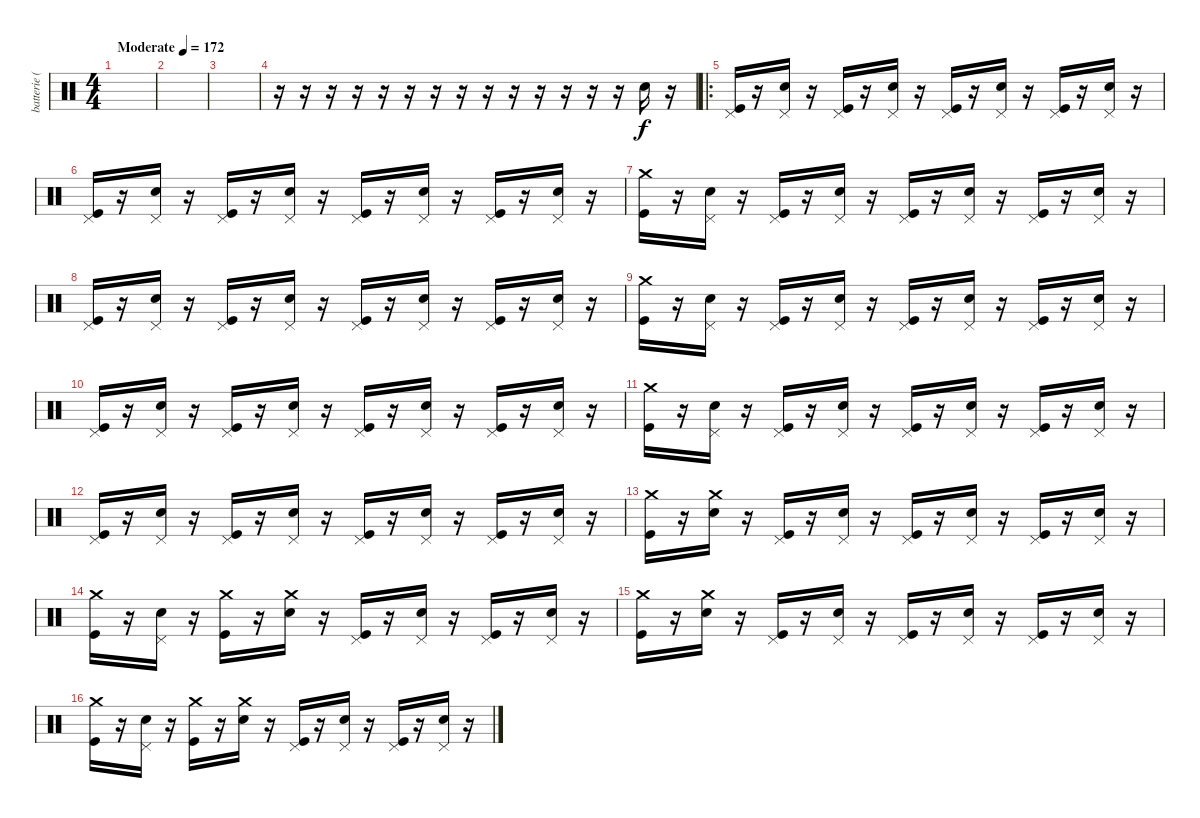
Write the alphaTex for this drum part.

\track ("batterie ( Louie Beatto ) " "batterie (") {instrument percussion}
\staff {score}
\articulation defaults
\ts (4 4)
\tempo (172 "Moderate")
\clef neutral
\ks c
|
|
|
r.16 r.16 r.16 r.16 r.16 r.16 r.16 r.16 r.16 r.16 r.16 r.16 r.16 r.16 "Snare (hit) 2".16 r.16 |
\ro
("Pedal Hi-Hat (hit)" "Kick (hit)").16 r.16 ("Pedal Hi-Hat (hit)" "Snare (hit) 2").16 r.16 ("Pedal Hi-Hat (hit)" "Kick (hit)").16 r.16 ("Pedal Hi-Hat (hit)" "Snare (hit) 2").16 r.16 ("Pedal Hi-Hat (hit)" "Kick (hit)").16 r.16 ("Pedal Hi-Hat (hit)" "Snare (hit) 2").16 r.16 ("Pedal Hi-Hat (hit)" "Kick (hit)").16 r.16 ("Pedal Hi-Hat (hit)" "Snare (hit) 2").16 r.16 |
("Pedal Hi-Hat (hit)" "Kick (hit)").16 r.16 ("Pedal Hi-Hat (hit)" "Snare (hit) 2").16 r.16 ("Pedal Hi-Hat (hit)" "Kick (hit)").16 r.16 ("Pedal Hi-Hat (hit)" "Snare (hit) 2").16 r.16 ("Pedal Hi-Hat (hit)" "Kick (hit)").16 r.16 ("Pedal Hi-Hat (hit)" "Snare (hit) 2").16 r.16 ("Pedal Hi-Hat (hit)" "Kick (hit)").16 r.16 ("Pedal Hi-Hat (hit)" "Snare (hit) 2").16 r.16 |
("Crash medium (hit)" "Kick (hit)").16 r.16 ("Pedal Hi-Hat (hit)" "Snare (hit) 2").16 r.16 ("Pedal Hi-Hat (hit)" "Kick (hit)").16 r.16 ("Pedal Hi-Hat (hit)" "Snare (hit) 2").16 r.16 ("Pedal Hi-Hat (hit)" "Kick (hit)").16 r.16 ("Pedal Hi-Hat (hit)" "Snare (hit) 2").16 r.16 ("Pedal Hi-Hat (hit)" "Kick (hit)").16 r.16 ("Pedal Hi-Hat (hit)" "Snare (hit) 2").16 r.16 |
("Pedal Hi-Hat (hit)" "Kick (hit)").16 r.16 ("Pedal Hi-Hat (hit)" "Snare (hit) 2").16 r.16 ("Pedal Hi-Hat (hit)" "Kick (hit)").16 r.16 ("Pedal Hi-Hat (hit)" "Snare (hit) 2").16 r.16 ("Pedal Hi-Hat (hit)" "Kick (hit)").16 r.16 ("Pedal Hi-Hat (hit)" "Snare (hit) 2").16 r.16 ("Pedal Hi-Hat (hit)" "Kick (hit)").16 r.16 ("Pedal Hi-Hat (hit)" "Snare (hit) 2").16 r.16 |
("Crash medium (hit)" "Kick (hit)").16 r.16 ("Pedal Hi-Hat (hit)" "Snare (hit) 2").16 r.16 ("Pedal Hi-Hat (hit)" "Kick (hit)").16 r.16 ("Pedal Hi-Hat (hit)" "Snare (hit) 2").16 r.16 ("Pedal Hi-Hat (hit)" "Kick (hit)").16 r.16 ("Pedal Hi-Hat (hit)" "Snare (hit) 2").16 r.16 ("Pedal Hi-Hat (hit)" "Kick (hit)").16 r.16 ("Pedal Hi-Hat (hit)" "Snare (hit) 2").16 r.16 |
("Pedal Hi-Hat (hit)" "Kick (hit)").16 r.16 ("Pedal Hi-Hat (hit)" "Snare (hit) 2").16 r.16 ("Pedal Hi-Hat (hit)" "Kick (hit)").16 r.16 ("Pedal Hi-Hat (hit)" "Snare (hit) 2").16 r.16 ("Pedal Hi-Hat (hit)" "Kick (hit)").16 r.16 ("Pedal Hi-Hat (hit)" "Snare (hit) 2").16 r.16 ("Pedal Hi-Hat (hit)" "Kick (hit)").16 r.16 ("Pedal Hi-Hat (hit)" "Snare (hit) 2").16 r.16 |
("Crash medium (hit)" "Kick (hit)").16 r.16 ("Pedal Hi-Hat (hit)" "Snare (hit) 2").16 r.16 ("Pedal Hi-Hat (hit)" "Kick (hit)").16 r.16 ("Pedal Hi-Hat (hit)" "Snare (hit) 2").16 r.16 ("Pedal Hi-Hat (hit)" "Kick (hit)").16 r.16 ("Pedal Hi-Hat (hit)" "Snare (hit) 2").16 r.16 ("Pedal Hi-Hat (hit)" "Kick (hit)").16 r.16 ("Pedal Hi-Hat (hit)" "Snare (hit) 2").16 r.16 |
("Pedal Hi-Hat (hit)" "Kick (hit)").16 r.16 ("Pedal Hi-Hat (hit)" "Snare (hit) 2").16 r.16 ("Pedal Hi-Hat (hit)" "Kick (hit)").16 r.16 ("Pedal Hi-Hat (hit)" "Snare (hit) 2").16 r.16 ("Pedal Hi-Hat (hit)" "Kick (hit)").16 r.16 ("Pedal Hi-Hat (hit)" "Snare (hit) 2").16 r.16 ("Pedal Hi-Hat (hit)" "Kick (hit)").16 r.16 ("Pedal Hi-Hat (hit)" "Snare (hit) 2").16 r.16 |
("Crash medium (hit)" "Kick (hit)").16 r.16 ("Crash medium (hit)" "Snare (hit) 2").16 r.16 ("Pedal Hi-Hat (hit)" "Kick (hit)").16 r.16 ("Pedal Hi-Hat (hit)" "Snare (hit) 2").16 r.16 ("Pedal Hi-Hat (hit)" "Kick (hit)").16 r.16 ("Pedal Hi-Hat (hit)" "Snare (hit) 2").16 r.16 ("Pedal Hi-Hat (hit)" "Kick (hit)").16 r.16 ("Pedal Hi-Hat (hit)" "Snare (hit) 2").16 r.16 |
("Crash medium (hit)" "Kick (hit)").16 r.16 ("Pedal Hi-Hat (hit)" "Snare (hit) 2").16 r.16 ("Crash medium (hit)" "Kick (hit)").16 r.16 ("Crash medium (hit)" "Snare (hit) 2").16 r.16 ("Pedal Hi-Hat (hit)" "Kick (hit)").16 r.16 ("Pedal Hi-Hat (hit)" "Snare (hit) 2").16 r.16 ("Pedal Hi-Hat (hit)" "Kick (hit)").16 r.16 ("Pedal Hi-Hat (hit)" "Snare (hit) 2").16 r.16 |
("Crash medium (hit)" "Kick (hit)").16 r.16 ("Crash medium (hit)" "Snare (hit) 2").16 r.16 ("Pedal Hi-Hat (hit)" "Kick (hit)").16 r.16 ("Pedal Hi-Hat (hit)" "Snare (hit) 2").16 r.16 ("Pedal Hi-Hat (hit)" "Kick (hit)").16 r.16 ("Pedal Hi-Hat (hit)" "Snare (hit) 2").16 r.16 ("Pedal Hi-Hat (hit)" "Kick (hit)").16 r.16 ("Pedal Hi-Hat (hit)" "Snare (hit) 2").16 r.16 |
("Crash medium (hit)" "Kick (hit)").16 r.16 ("Pedal Hi-Hat (hit)" "Snare (hit) 2").16 r.16 ("Crash medium (hit)" "Kick (hit)").16 r.16 ("Crash medium (hit)" "Snare (hit) 2").16 r.16 ("Pedal Hi-Hat (hit)" "Kick (hit)").16 r.16 ("Pedal Hi-Hat (hit)" "Snare (hit) 2").16 r.16 ("Pedal Hi-Hat (hit)" "Kick (hit)").16 r.16 ("Pedal Hi-Hat (hit)" "Snare (hit) 2").16 r.16
